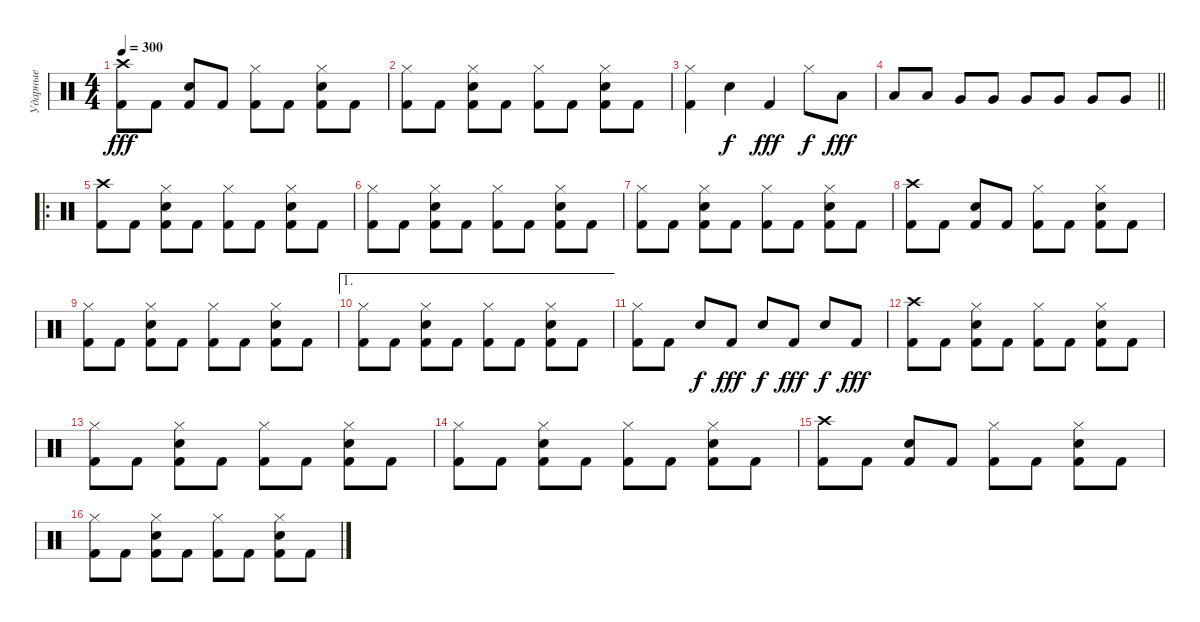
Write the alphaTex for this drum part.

\track ("Ударные" "Ударные") {instrument percussion}
\staff {score}
\articulation defaults
\ts (4 4)
\tempo 300
\clef neutral
\ks c
("Kick (hit) 2" "Crash high (hit)").8{dy fff} "Kick (hit) 2".8 ("Kick (hit) 2" "Snare (hit) 2").8 "Kick (hit) 2".8 ("Kick (hit) 2" "Hi-Hat (closed)").8 "Kick (hit) 2".8 ("Kick (hit) 2" "Snare (hit) 2" "Hi-Hat (closed)").8 "Kick (hit) 2".8 |
("Kick (hit) 2" "Hi-Hat (closed)").8 "Kick (hit) 2".8 ("Kick (hit) 2" "Snare (hit) 2" "Hi-Hat (closed)").8 "Kick (hit) 2".8 ("Kick (hit) 2" "Hi-Hat (closed)").8 "Kick (hit) 2".8 ("Kick (hit) 2" "Snare (hit) 2" "Hi-Hat (closed)").8 "Kick (hit) 2".8 |
("Kick (hit) 2" "Hi-Hat (closed)").4 "Snare (hit) 2".4{dy f} "Kick (hit) 2".4{dy fff} "Hi-Hat (closed)".8{dy f} "Low Tom (hit)".8{dy fff} |
\barLineRight lightlight "Low Tom (hit)".8 "Low Tom (hit)".8 "Very Low Tom (hit)".8 "Very Low Tom (hit)".8 "Very Low Tom (hit)".8 "Very Low Tom (hit)".8 "Very Low Tom (hit)".8 "Very Low Tom (hit)".8
|
\ro
("Kick (hit) 2" "Crash high (hit)").8 "Kick (hit) 2".8 ("Kick (hit) 2" "Snare (hit) 2" "Hi-Hat (closed)").8 "Kick (hit) 2".8 ("Kick (hit) 2" "Hi-Hat (closed)").8 "Kick (hit) 2".8 ("Kick (hit) 2" "Snare (hit) 2" "Hi-Hat (closed)").8 "Kick (hit) 2".8 |
("Kick (hit) 2" "Hi-Hat (closed)").8 "Kick (hit) 2".8 ("Kick (hit) 2" "Snare (hit) 2" "Hi-Hat (closed)").8 "Kick (hit) 2".8 ("Kick (hit) 2" "Hi-Hat (closed)").8 "Kick (hit) 2".8 ("Kick (hit) 2" "Snare (hit) 2" "Hi-Hat (closed)").8 "Kick (hit) 2".8 |
("Kick (hit) 2" "Hi-Hat (closed)").8 "Kick (hit) 2".8 ("Kick (hit) 2" "Snare (hit) 2" "Hi-Hat (closed)").8 "Kick (hit) 2".8 ("Kick (hit) 2" "Hi-Hat (closed)").8 "Kick (hit) 2".8 ("Kick (hit) 2" "Snare (hit) 2" "Hi-Hat (closed)").8 "Kick (hit) 2".8 |
("Kick (hit) 2" "Crash high (hit)").8 "Kick (hit) 2".8 ("Kick (hit) 2" "Snare (hit) 2").8 "Kick (hit) 2".8 ("Kick (hit) 2" "Hi-Hat (closed)").8 "Kick (hit) 2".8 ("Kick (hit) 2" "Snare (hit) 2" "Hi-Hat (closed)").8 "Kick (hit) 2".8 |
("Kick (hit) 2" "Hi-Hat (closed)").8 "Kick (hit) 2".8 ("Kick (hit) 2" "Snare (hit) 2" "Hi-Hat (closed)").8 "Kick (hit) 2".8 ("Kick (hit) 2" "Hi-Hat (closed)").8 "Kick (hit) 2".8 ("Kick (hit) 2" "Snare (hit) 2" "Hi-Hat (closed)").8 "Kick (hit) 2".8 |
\ae 1
("Kick (hit) 2" "Hi-Hat (closed)").8 "Kick (hit) 2".8 ("Kick (hit) 2" "Snare (hit) 2" "Hi-Hat (closed)").8 "Kick (hit) 2".8 ("Kick (hit) 2" "Hi-Hat (closed)").8 "Kick (hit) 2".8 ("Kick (hit) 2" "Snare (hit) 2" "Hi-Hat (closed)").8 "Kick (hit) 2".8 |
("Kick (hit) 2" "Hi-Hat (closed)").8 "Kick (hit) 2".8 "Snare (hit) 2".8{dy f} "Kick (hit) 2".8{dy fff} "Snare (hit) 2".8{dy f} "Kick (hit) 2".8{dy fff} "Snare (hit) 2".8{dy f} "Kick (hit) 2".8{dy fff} |
("Kick (hit) 2" "Crash high (hit)").8 "Kick (hit) 2".8 ("Kick (hit) 2" "Snare (hit) 2" "Hi-Hat (closed)").8 "Kick (hit) 2".8 ("Kick (hit) 2" "Hi-Hat (closed)").8 "Kick (hit) 2".8 ("Kick (hit) 2" "Snare (hit) 2" "Hi-Hat (closed)").8 "Kick (hit) 2".8 |
("Kick (hit) 2" "Hi-Hat (closed)").8 "Kick (hit) 2".8 ("Kick (hit) 2" "Snare (hit) 2" "Hi-Hat (closed)").8 "Kick (hit) 2".8 ("Kick (hit) 2" "Hi-Hat (closed)").8 "Kick (hit) 2".8 ("Kick (hit) 2" "Snare (hit) 2" "Hi-Hat (closed)").8 "Kick (hit) 2".8 |
("Kick (hit) 2" "Hi-Hat (closed)").8 "Kick (hit) 2".8 ("Kick (hit) 2" "Snare (hit) 2" "Hi-Hat (closed)").8 "Kick (hit) 2".8 ("Kick (hit) 2" "Hi-Hat (closed)").8 "Kick (hit) 2".8 ("Kick (hit) 2" "Snare (hit) 2" "Hi-Hat (closed)").8 "Kick (hit) 2".8 |
("Kick (hit) 2" "Crash high (hit)").8 "Kick (hit) 2".8 ("Kick (hit) 2" "Snare (hit) 2").8 "Kick (hit) 2".8 ("Kick (hit) 2" "Hi-Hat (closed)").8 "Kick (hit) 2".8 ("Kick (hit) 2" "Snare (hit) 2" "Hi-Hat (closed)").8 "Kick (hit) 2".8 |
("Kick (hit) 2" "Hi-Hat (closed)").8 "Kick (hit) 2".8 ("Kick (hit) 2" "Snare (hit) 2" "Hi-Hat (closed)").8 "Kick (hit) 2".8 ("Kick (hit) 2" "Hi-Hat (closed)").8 "Kick (hit) 2".8 ("Kick (hit) 2" "Snare (hit) 2" "Hi-Hat (closed)").8 "Kick (hit) 2".8
